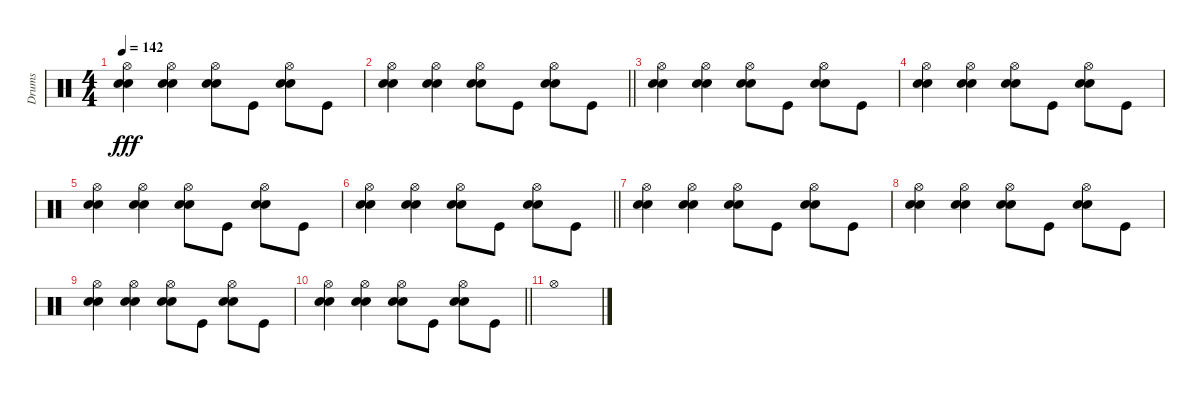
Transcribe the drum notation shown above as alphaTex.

\track ("Drums" "Drums") {instrument percussion}
\staff {score}
\articulation defaults
\ts (4 4)
\tempo 142
\clef neutral
\ks c
("Hi-Hat (open)" "Hand Clap (hit)" "Electric Snare (hit)").4{dy fff} ("Hi-Hat (open)" "Hand Clap (hit)" "Electric Snare (hit)").4 ("Hi-Hat (open)" "Hand Clap (hit)" "Electric Snare (hit)").8 "Kick (hit)".8 ("Hi-Hat (open)" "Hand Clap (hit)" "Electric Snare (hit)").8 "Kick (hit)".8 |
\barLineRight lightlight
("Hi-Hat (open)" "Hand Clap (hit)" "Electric Snare (hit)").4 ("Hi-Hat (open)" "Hand Clap (hit)" "Electric Snare (hit)").4 ("Hi-Hat (open)" "Hand Clap (hit)" "Electric Snare (hit)").8 "Kick (hit)".8 ("Hi-Hat (open)" "Hand Clap (hit)" "Electric Snare (hit)").8 "Kick (hit)".8 |
("Hi-Hat (open)" "Hand Clap (hit)" "Electric Snare (hit)").4 ("Hi-Hat (open)" "Hand Clap (hit)" "Electric Snare (hit)").4 ("Hi-Hat (open)" "Hand Clap (hit)" "Electric Snare (hit)").8 "Kick (hit)".8 ("Hi-Hat (open)" "Hand Clap (hit)" "Electric Snare (hit)").8 "Kick (hit)".8 |
("Hi-Hat (open)" "Hand Clap (hit)" "Electric Snare (hit)").4 ("Hi-Hat (open)" "Hand Clap (hit)" "Electric Snare (hit)").4 ("Hi-Hat (open)" "Hand Clap (hit)" "Electric Snare (hit)").8 "Kick (hit)".8 ("Hi-Hat (open)" "Hand Clap (hit)" "Electric Snare (hit)").8 "Kick (hit)".8 |
("Hi-Hat (open)" "Hand Clap (hit)" "Electric Snare (hit)").4 ("Hi-Hat (open)" "Hand Clap (hit)" "Electric Snare (hit)").4 ("Hi-Hat (open)" "Hand Clap (hit)" "Electric Snare (hit)").8 "Kick (hit)".8 ("Hi-Hat (open)" "Hand Clap (hit)" "Electric Snare (hit)").8 "Kick (hit)".8 |
\barLineRight lightlight
("Hi-Hat (open)" "Hand Clap (hit)" "Electric Snare (hit)").4 ("Hi-Hat (open)" "Hand Clap (hit)" "Electric Snare (hit)").4 ("Hi-Hat (open)" "Hand Clap (hit)" "Electric Snare (hit)").8 "Kick (hit)".8 ("Hi-Hat (open)" "Hand Clap (hit)" "Electric Snare (hit)").8 "Kick (hit)".8 |
("Hi-Hat (open)" "Hand Clap (hit)" "Electric Snare (hit)").4 ("Hi-Hat (open)" "Hand Clap (hit)" "Electric Snare (hit)").4 ("Hi-Hat (open)" "Hand Clap (hit)" "Electric Snare (hit)").8 "Kick (hit)".8 ("Hi-Hat (open)" "Hand Clap (hit)" "Electric Snare (hit)").8 "Kick (hit)".8 |
("Hi-Hat (open)" "Hand Clap (hit)" "Electric Snare (hit)").4 ("Hi-Hat (open)" "Hand Clap (hit)" "Electric Snare (hit)").4 ("Hi-Hat (open)" "Hand Clap (hit)" "Electric Snare (hit)").8 "Kick (hit)".8 ("Hi-Hat (open)" "Hand Clap (hit)" "Electric Snare (hit)").8 "Kick (hit)".8 |
("Hi-Hat (open)" "Hand Clap (hit)" "Electric Snare (hit)").4 ("Hi-Hat (open)" "Hand Clap (hit)" "Electric Snare (hit)").4 ("Hi-Hat (open)" "Hand Clap (hit)" "Electric Snare (hit)").8 "Kick (hit)".8 ("Hi-Hat (open)" "Hand Clap (hit)" "Electric Snare (hit)").8 "Kick (hit)".8 |
\barLineRight lightlight
("Hi-Hat (open)" "Hand Clap (hit)" "Electric Snare (hit)").4 ("Hi-Hat (open)" "Hand Clap (hit)" "Electric Snare (hit)").4 ("Hi-Hat (open)" "Hand Clap (hit)" "Electric Snare (hit)").8 "Kick (hit)".8 ("Hi-Hat (open)" "Hand Clap (hit)" "Electric Snare (hit)").8 "Kick (hit)".8 |
"Hi-Hat (open)".1
